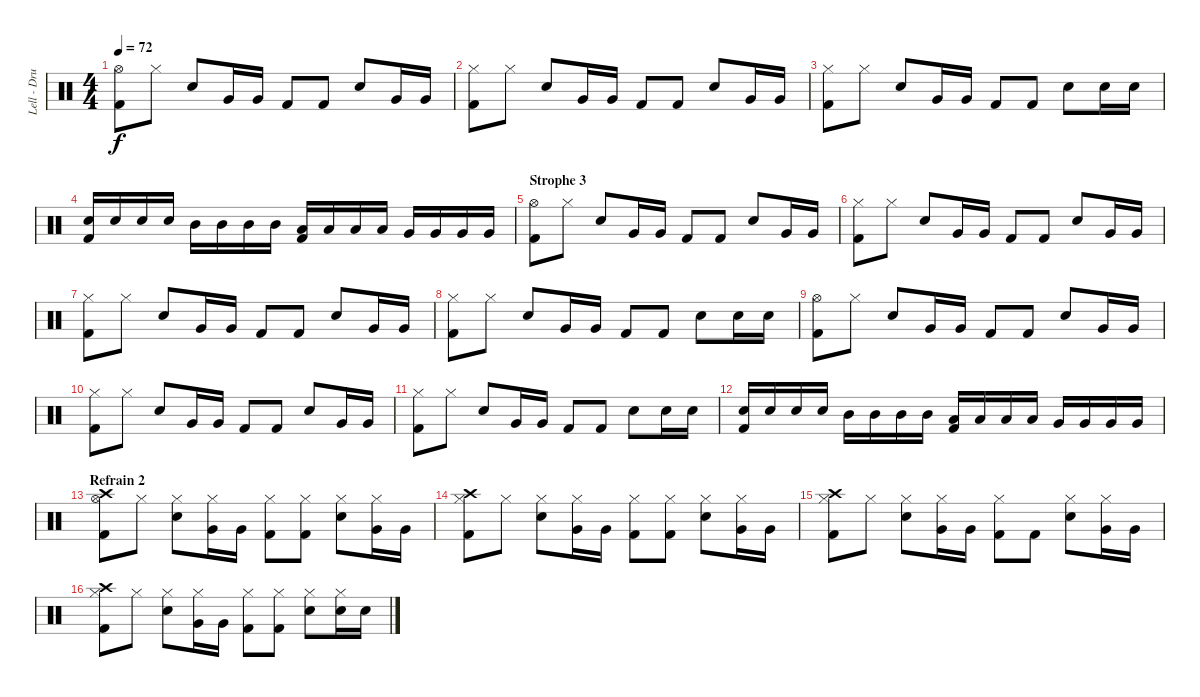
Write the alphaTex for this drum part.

\track ("Lell - Drums" "Lell - Dru") {instrument percussion}
\staff {score}
\articulation defaults
\ts (4 4)
\tempo 72
\clef neutral
\ks c
("Hi-Hat (open)" "Kick (hit) 2").8{dy f} "Hi-Hat (closed)".8 "Snare (hit) 2".8 "Very Low Tom (hit)".16 "Very Low Tom (hit)".16 "Kick (hit) 2".8 "Kick (hit) 2".8 "Snare (hit) 2".8 "Very Low Tom (hit)".16 "Very Low Tom (hit)".16 |
("Hi-Hat (closed)" "Kick (hit) 2").8 "Hi-Hat (closed)".8 "Snare (hit) 2".8 "Very Low Tom (hit)".16 "Very Low Tom (hit)".16 "Kick (hit) 2".8 "Kick (hit) 2".8 "Snare (hit) 2".8 "Very Low Tom (hit)".16 "Very Low Tom (hit)".16 |
("Hi-Hat (closed)" "Kick (hit) 2").8 "Hi-Hat (closed)".8 "Snare (hit) 2".8 "Very Low Tom (hit)".16 "Very Low Tom (hit)".16 "Kick (hit) 2".8 "Kick (hit) 2".8 "Snare (hit) 2".8 "Snare (hit) 2".16 "Snare (hit) 2".16 |
("Snare (hit) 2" "Kick (hit) 2").16 "Snare (hit) 2".16 "Snare (hit) 2".16 "Snare (hit) 2".16 "Mid Tom (hit)".16 "Mid Tom (hit)".16 "Mid Tom (hit)".16 "Mid Tom (hit)".16 ("Low Tom (hit)" "Kick (hit) 2").16 "Low Tom (hit)".16 "Low Tom (hit)".16 "Low Tom (hit)".16 "Very Low Tom (hit)".16 "Very Low Tom (hit)".16 "Very Low Tom (hit)".16 "Very Low Tom (hit)".16 |
\section ("" "Strophe 3")
("Hi-Hat (open)" "Kick (hit) 2").8 "Hi-Hat (closed)".8 "Snare (hit) 2".8 "Very Low Tom (hit)".16 "Very Low Tom (hit)".16 "Kick (hit) 2".8 "Kick (hit) 2".8 "Snare (hit) 2".8 "Very Low Tom (hit)".16 "Very Low Tom (hit)".16 |
("Hi-Hat (closed)" "Kick (hit) 2").8 "Hi-Hat (closed)".8 "Snare (hit) 2".8 "Very Low Tom (hit)".16 "Very Low Tom (hit)".16 "Kick (hit) 2".8 "Kick (hit) 2".8 "Snare (hit) 2".8 "Very Low Tom (hit)".16 "Very Low Tom (hit)".16 |
("Hi-Hat (closed)" "Kick (hit) 2").8 "Hi-Hat (closed)".8 "Snare (hit) 2".8 "Very Low Tom (hit)".16 "Very Low Tom (hit)".16 "Kick (hit) 2".8 "Kick (hit) 2".8 "Snare (hit) 2".8 "Very Low Tom (hit)".16 "Very Low Tom (hit)".16 |
("Hi-Hat (closed)" "Kick (hit) 2").8 "Hi-Hat (closed)".8 "Snare (hit) 2".8 "Very Low Tom (hit)".16 "Very Low Tom (hit)".16 "Kick (hit) 2".8 "Kick (hit) 2".8 "Snare (hit) 2".8 "Snare (hit) 2".16 "Snare (hit) 2".16 |
("Hi-Hat (open)" "Kick (hit) 2").8 "Hi-Hat (closed)".8 "Snare (hit) 2".8 "Very Low Tom (hit)".16 "Very Low Tom (hit)".16 "Kick (hit) 2".8 "Kick (hit) 2".8 "Snare (hit) 2".8 "Very Low Tom (hit)".16 "Very Low Tom (hit)".16 |
("Hi-Hat (closed)" "Kick (hit) 2").8 "Hi-Hat (closed)".8 "Snare (hit) 2".8 "Very Low Tom (hit)".16 "Very Low Tom (hit)".16 "Kick (hit) 2".8 "Kick (hit) 2".8 "Snare (hit) 2".8 "Very Low Tom (hit)".16 "Very Low Tom (hit)".16 |
("Hi-Hat (closed)" "Kick (hit) 2").8 "Hi-Hat (closed)".8 "Snare (hit) 2".8 "Very Low Tom (hit)".16 "Very Low Tom (hit)".16 "Kick (hit) 2".8 "Kick (hit) 2".8 "Snare (hit) 2".8 "Snare (hit) 2".16 "Snare (hit) 2".16 |
("Snare (hit) 2" "Kick (hit) 2").16 "Snare (hit) 2".16 "Snare (hit) 2".16 "Snare (hit) 2".16 "Mid Tom (hit)".16 "Mid Tom (hit)".16 "Mid Tom (hit)".16 "Mid Tom (hit)".16 ("Low Tom (hit)" "Kick (hit) 2").16 "Low Tom (hit)".16 "Low Tom (hit)".16 "Low Tom (hit)".16 "Very Low Tom (hit)".16 "Very Low Tom (hit)".16 "Very Low Tom (hit)".16 "Very Low Tom (hit)".16 |
\section ("" "Refrain 2")
("Crash high (hit)" "Hi-Hat (open)" "Kick (hit) 2").8 "Hi-Hat (closed)".8 ("Hi-Hat (closed)" "Snare (hit) 2").8 ("Hi-Hat (closed)" "Very Low Tom (hit)").16 "Very Low Tom (hit)".16 ("Hi-Hat (closed)" "Kick (hit) 2").8 ("Hi-Hat (closed)" "Kick (hit) 2").8 ("Hi-Hat (closed)" "Snare (hit) 2").8 ("Hi-Hat (closed)" "Very Low Tom (hit)").16 "Very Low Tom (hit)".16 |
("Crash high (hit)" "Hi-Hat (closed)" "Kick (hit) 2").8 "Hi-Hat (closed)".8 ("Hi-Hat (closed)" "Snare (hit) 2").8 ("Hi-Hat (closed)" "Very Low Tom (hit)").16 "Very Low Tom (hit)".16 ("Hi-Hat (closed)" "Kick (hit) 2").8 ("Hi-Hat (closed)" "Kick (hit) 2").8 ("Hi-Hat (closed)" "Snare (hit) 2").8 ("Hi-Hat (closed)" "Very Low Tom (hit)").16 "Very Low Tom (hit)".16 |
("Crash high (hit)" "Hi-Hat (closed)" "Kick (hit) 2").8 "Hi-Hat (closed)".8 ("Hi-Hat (closed)" "Snare (hit) 2").8 ("Hi-Hat (closed)" "Very Low Tom (hit)").16 "Very Low Tom (hit)".16 ("Hi-Hat (closed)" "Kick (hit) 2").8 "Kick (hit) 2".8 ("Hi-Hat (closed)" "Snare (hit) 2").8 ("Hi-Hat (closed)" "Very Low Tom (hit)").16 "Very Low Tom (hit)".16 |
("Crash high (hit)" "Hi-Hat (closed)" "Kick (hit) 2").8 "Hi-Hat (closed)".8 ("Hi-Hat (closed)" "Snare (hit) 2").8 ("Hi-Hat (closed)" "Very Low Tom (hit)").16 "Very Low Tom (hit)".16 ("Hi-Hat (closed)" "Kick (hit) 2").8 ("Hi-Hat (closed)" "Kick (hit) 2").8 ("Hi-Hat (closed)" "Snare (hit) 2").8 ("Hi-Hat (closed)" "Snare (hit) 2").16 "Snare (hit) 2".16
